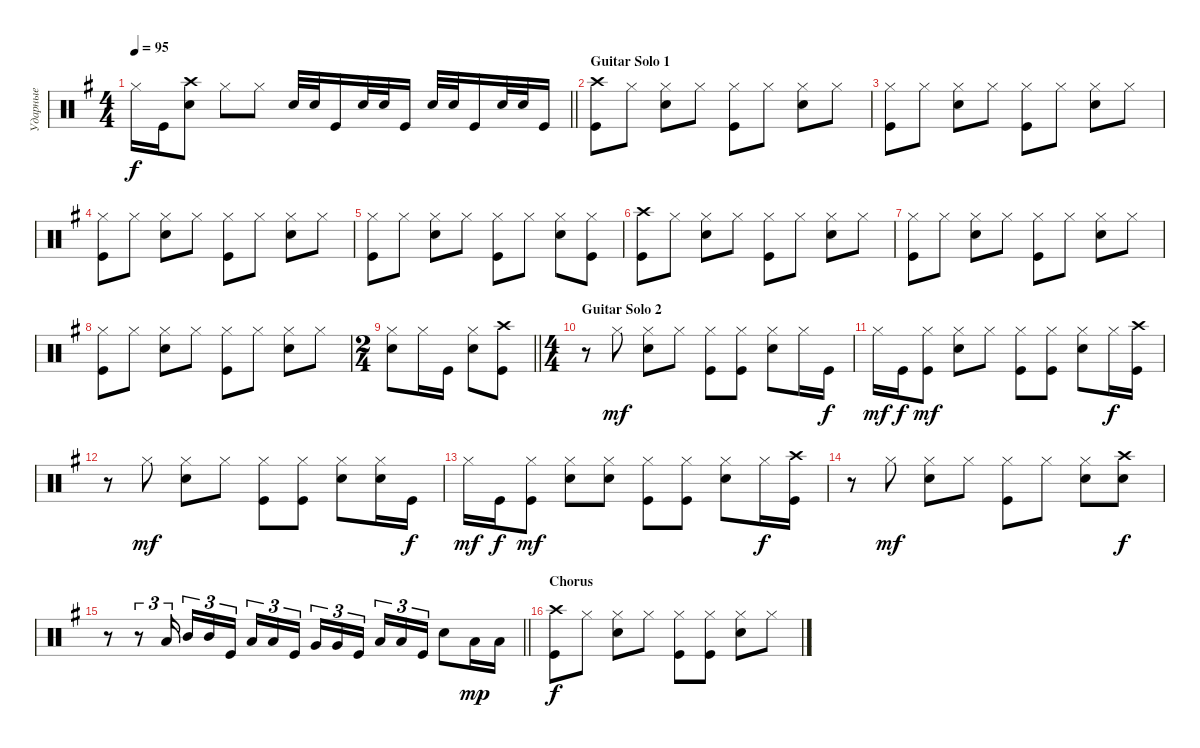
\track ("Ударные" "Ударные") {instrument percussion}
\staff {score}
\articulation defaults
\ts (4 4)
\tempo 95
\clef neutral
\barLineRight lightlight
\ks eminor "Hi-Hat (closed)".16{dy f} "Kick (hit)".16
("Snare (hit) 2" "Crash high (hit)").8 "Hi-Hat (closed)".8 "Hi-Hat (closed)".8 "Snare (hit) 2".32 "Snare (hit) 2".32 "Kick (hit)".16 "Snare (hit) 2".32 "Snare (hit) 2".32 "Kick (hit)".16 "Snare (hit) 2".32 "Snare (hit) 2".32 "Kick (hit)".16 "Snare (hit) 2".32 "Snare (hit) 2".32 "Kick (hit)".16 |
\section ("" "Guitar Solo 1")
("Kick (hit)" "Crash high (hit)").8 "Hi-Hat (closed)".8 ("Snare (hit) 2" "Hi-Hat (closed)").8 "Hi-Hat (closed)".8 ("Kick (hit)" "Hi-Hat (closed)").8 "Hi-Hat (closed)".8 ("Snare (hit) 2" "Hi-Hat (closed)").8 "Hi-Hat (closed)".8 |
("Kick (hit)" "Hi-Hat (closed)").8 "Hi-Hat (closed)".8 ("Snare (hit) 2" "Hi-Hat (closed)").8 "Hi-Hat (closed)".8 ("Kick (hit)" "Hi-Hat (closed)").8 "Hi-Hat (closed)".8 ("Snare (hit) 2" "Hi-Hat (closed)").8 "Hi-Hat (closed)".8 |
("Kick (hit)" "Hi-Hat (closed)").8 "Hi-Hat (closed)".8 ("Snare (hit) 2" "Hi-Hat (closed)").8 "Hi-Hat (closed)".8 ("Kick (hit)" "Hi-Hat (closed)").8 "Hi-Hat (closed)".8 ("Snare (hit) 2" "Hi-Hat (closed)").8 "Hi-Hat (closed)".8 |
("Kick (hit)" "Hi-Hat (closed)").8 "Hi-Hat (closed)".8 ("Snare (hit) 2" "Hi-Hat (closed)").8 "Hi-Hat (closed)".8 ("Kick (hit)" "Hi-Hat (closed)").8 "Hi-Hat (closed)".8 ("Snare (hit) 2" "Hi-Hat (closed)").8 ("Hi-Hat (closed)" "Kick (hit)").8 |
("Kick (hit)" "Crash high (hit)").8 "Hi-Hat (closed)".8 ("Snare (hit) 2" "Hi-Hat (closed)").8 "Hi-Hat (closed)".8 ("Kick (hit)" "Hi-Hat (closed)").8 "Hi-Hat (closed)".8 ("Snare (hit) 2" "Hi-Hat (closed)").8 "Hi-Hat (closed)".8 |
("Kick (hit)" "Hi-Hat (closed)").8 "Hi-Hat (closed)".8 ("Snare (hit) 2" "Hi-Hat (closed)").8 "Hi-Hat (closed)".8 ("Kick (hit)" "Hi-Hat (closed)").8 "Hi-Hat (closed)".8 ("Snare (hit) 2" "Hi-Hat (closed)").8 "Hi-Hat (closed)".8 |
("Kick (hit)" "Hi-Hat (closed)").8 "Hi-Hat (closed)".8 ("Snare (hit) 2" "Hi-Hat (closed)").8 "Hi-Hat (closed)".8 ("Kick (hit)" "Hi-Hat (closed)").8 "Hi-Hat (closed)".8 ("Snare (hit) 2" "Hi-Hat (closed)").8 "Hi-Hat (closed)".8 |
\ts (2 4)
\barLineRight lightlight
("Snare (hit) 2" "Hi-Hat (closed)").8 "Hi-Hat (closed)".16 "Kick (hit)".16 ("Snare (hit) 2" "Hi-Hat (closed)").8 ("Kick (hit)" "Crash high (hit)").8 |
\ts (4 4)
\section ("" "Guitar Solo 2")
r.8 "Hi-Hat (closed)".8{dy mf} ("Snare (hit) 2" "Hi-Hat (closed)").8 "Hi-Hat (closed)".8 ("Kick (hit)" "Hi-Hat (closed)").8 ("Hi-Hat (closed)" "Kick (hit)").8 ("Snare (hit) 2" "Hi-Hat (closed)").8 "Hi-Hat (closed)".16 "Kick (hit)".16{dy f} |
"Hi-Hat (closed)".16{dy mf} "Kick (hit)".16{dy f} ("Hi-Hat (closed)" "Kick (hit)").8{dy mf} ("Snare (hit) 2" "Hi-Hat (closed)").8 "Hi-Hat (closed)".8 ("Kick (hit)" "Hi-Hat (closed)").8 ("Hi-Hat (closed)" "Kick (hit)").8 ("Snare (hit) 2" "Hi-Hat (closed)").8 "Hi-Hat (closed)".16{dy f} ("Kick (hit)" "Crash high (hit)").16 |
r.8 "Hi-Hat (closed)".8{dy mf} ("Snare (hit) 2" "Hi-Hat (closed)").8 "Hi-Hat (closed)".8 ("Kick (hit)" "Hi-Hat (closed)").8 ("Hi-Hat (closed)" "Kick (hit)").8 ("Snare (hit) 2" "Hi-Hat (closed)").8 ("Hi-Hat (closed)" "Snare (hit) 2").16 "Kick (hit)".16{dy f} |
"Hi-Hat (closed)".16{dy mf} "Kick (hit)".16{dy f} ("Hi-Hat (closed)" "Kick (hit)").8{dy mf} ("Snare (hit) 2" "Hi-Hat (closed)").8 ("Hi-Hat (closed)" "Snare (hit) 2").8 ("Kick (hit)" "Hi-Hat (closed)").8 ("Hi-Hat (closed)" "Kick (hit)").8 ("Snare (hit) 2" "Hi-Hat (closed)").8 "Hi-Hat (closed)".16{dy f} ("Kick (hit)" "Crash high (hit)").16 |
r.8 "Hi-Hat (closed)".8{dy mf} ("Snare (hit) 2" "Hi-Hat (closed)").8 "Hi-Hat (closed)".8 ("Kick (hit)" "Hi-Hat (closed)").8 "Hi-Hat (closed)".8 ("Snare (hit) 2" "Hi-Hat (closed)").8 ("Snare (hit) 2" "Crash high (hit)").8{dy f} |
\barLineRight lightlight
r.8 r.8{tu (3 2)} "Low Tom (hit)".16{tu (3 2)} "Mid Tom (hit)".16{tu (3 2)} "Mid Tom (hit)".16{tu (3 2)} "Kick (hit)".16{tu (3 2) beam splitsecondary} "Low Tom (hit)".16{tu (3 2)} "Low Tom (hit)".16{tu (3 2)} "Kick (hit)".16{tu (3 2)} "Very Low Tom (hit)".16{tu (3 2)} "Very Low Tom (hit)".16{tu (3 2)} "Kick (hit)".16{tu (3 2) beam splitsecondary} "Low Floor Tom (hit)".16{tu (3 2)} "Low Floor Tom (hit)".16{tu (3 2)} "Kick (hit)".16{tu (3 2)} "Snare (hit) 2".8 "Low Tom (hit)".16{dy mp} "Low Tom (hit)".16 |
\section ("" "Chorus")
("Kick (hit)" "Crash high (hit)").8{dy f} "Hi-Hat (closed)".8 ("Snare (hit) 2" "Hi-Hat (closed)").8 "Hi-Hat (closed)".8 ("Kick (hit)" "Hi-Hat (closed)").8 ("Hi-Hat (closed)" "Kick (hit)").8 ("Snare (hit) 2" "Hi-Hat (closed)").8 "Hi-Hat (closed)".8
